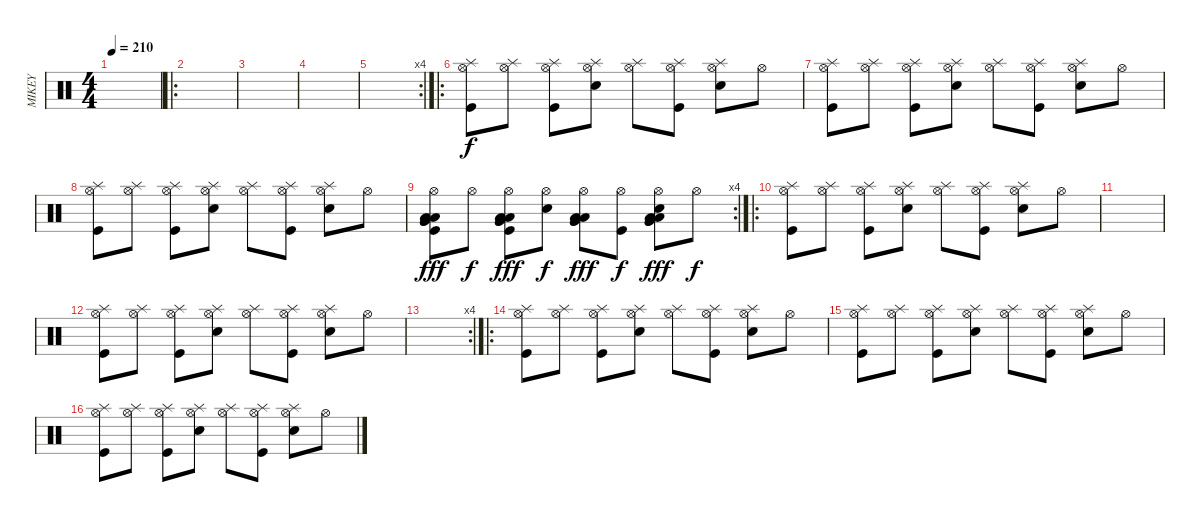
\track ("MIKEY" "MIKEY") {instrument percussion}
\staff {score}
\articulation defaults
\ts (4 4)
\tempo 210
\clef neutral
\ks c
|
\ro
|
|
|
\rc 4
|
\ro
("Splash (hit)" "Hi-Hat (open)" "Kick (hit)").8 ("Splash (hit)" "Hi-Hat (open)").8 ("Splash (hit)" "Hi-Hat (open)" "Kick (hit)").8 ("Splash (hit)" "Hi-Hat (open)" "Snare (hit) 2").8 ("Splash (hit)" "Hi-Hat (open)").8 ("Splash (hit)" "Hi-Hat (open)" "Kick (hit)").8 ("Splash (hit)" "Hi-Hat (open)" "Snare (hit) 2").8 "Hi-Hat (open)".8 |
("Splash (hit)" "Hi-Hat (open)" "Kick (hit)").8 ("Splash (hit)" "Hi-Hat (open)").8 ("Splash (hit)" "Hi-Hat (open)" "Kick (hit)").8 ("Splash (hit)" "Hi-Hat (open)" "Snare (hit) 2").8 ("Splash (hit)" "Hi-Hat (open)").8 ("Splash (hit)" "Hi-Hat (open)" "Kick (hit)").8 ("Splash (hit)" "Hi-Hat (open)" "Snare (hit) 2").8 "Hi-Hat (open)".8 |
("Splash (hit)" "Hi-Hat (open)" "Kick (hit)").8 ("Splash (hit)" "Hi-Hat (open)").8 ("Splash (hit)" "Hi-Hat (open)" "Kick (hit)").8 ("Splash (hit)" "Hi-Hat (open)" "Snare (hit) 2").8 ("Splash (hit)" "Hi-Hat (open)").8 ("Splash (hit)" "Hi-Hat (open)" "Kick (hit)").8 ("Splash (hit)" "Hi-Hat (open)" "Snare (hit) 2").8 "Hi-Hat (open)".8 |
\rc 4
("Low Tom (hit)" "Very Low Tom (hit)" "Low Tom (hit)" "Very Low Tom (hit)" "Hi-Hat (open)" "Kick (hit)").8{dy fff} "Hi-Hat (open)".8{dy f} ("Low Tom (hit)" "Very Low Tom (hit)" "Low Tom (hit)" "Very Low Tom (hit)" "Hi-Hat (open)" "Kick (hit)").8{dy fff} ("Hi-Hat (open)" "Snare (hit) 2").8{dy f} ("Low Tom (hit)" "Very Low Tom (hit)" "Low Tom (hit)" "Very Low Tom (hit)" "Hi-Hat (open)").8{dy fff} ("Hi-Hat (open)" "Kick (hit)").8{dy f} ("Low Tom (hit)" "Very Low Tom (hit)" "Low Tom (hit)" "Very Low Tom (hit)" "Hi-Hat (open)" "Snare (hit) 2").8{dy fff} "Hi-Hat (open)".8{dy f} |
\ro
("Splash (hit)" "Hi-Hat (open)" "Kick (hit)").8 ("Splash (hit)" "Hi-Hat (open)").8 ("Splash (hit)" "Hi-Hat (open)" "Kick (hit)").8 ("Splash (hit)" "Hi-Hat (open)" "Snare (hit) 2").8 ("Splash (hit)" "Hi-Hat (open)").8 ("Splash (hit)" "Hi-Hat (open)" "Kick (hit)").8 ("Splash (hit)" "Hi-Hat (open)" "Snare (hit) 2").8 "Hi-Hat (open)".8 |
|
("Splash (hit)" "Hi-Hat (open)" "Kick (hit)").8 ("Splash (hit)" "Hi-Hat (open)").8 ("Splash (hit)" "Hi-Hat (open)" "Kick (hit)").8 ("Splash (hit)" "Hi-Hat (open)" "Snare (hit) 2").8 ("Splash (hit)" "Hi-Hat (open)").8 ("Splash (hit)" "Hi-Hat (open)" "Kick (hit)").8 ("Splash (hit)" "Hi-Hat (open)" "Snare (hit) 2").8 "Hi-Hat (open)".8 |
\rc 4
|
\ro
("Splash (hit)" "Hi-Hat (open)" "Kick (hit)").8 ("Splash (hit)" "Hi-Hat (open)").8 ("Splash (hit)" "Hi-Hat (open)" "Kick (hit)").8 ("Splash (hit)" "Hi-Hat (open)" "Snare (hit) 2").8 ("Splash (hit)" "Hi-Hat (open)").8 ("Splash (hit)" "Hi-Hat (open)" "Kick (hit)").8 ("Splash (hit)" "Hi-Hat (open)" "Snare (hit) 2").8 "Hi-Hat (open)".8 |
("Splash (hit)" "Hi-Hat (open)" "Kick (hit)").8 ("Splash (hit)" "Hi-Hat (open)").8 ("Splash (hit)" "Hi-Hat (open)" "Kick (hit)").8 ("Splash (hit)" "Hi-Hat (open)" "Snare (hit) 2").8 ("Splash (hit)" "Hi-Hat (open)").8 ("Splash (hit)" "Hi-Hat (open)" "Kick (hit)").8 ("Splash (hit)" "Hi-Hat (open)" "Snare (hit) 2").8 "Hi-Hat (open)".8 |
("Splash (hit)" "Hi-Hat (open)" "Kick (hit)").8 ("Splash (hit)" "Hi-Hat (open)").8 ("Splash (hit)" "Hi-Hat (open)" "Kick (hit)").8 ("Splash (hit)" "Hi-Hat (open)" "Snare (hit) 2").8 ("Splash (hit)" "Hi-Hat (open)").8 ("Splash (hit)" "Hi-Hat (open)" "Kick (hit)").8 ("Splash (hit)" "Hi-Hat (open)" "Snare (hit) 2").8 "Hi-Hat (open)".8
